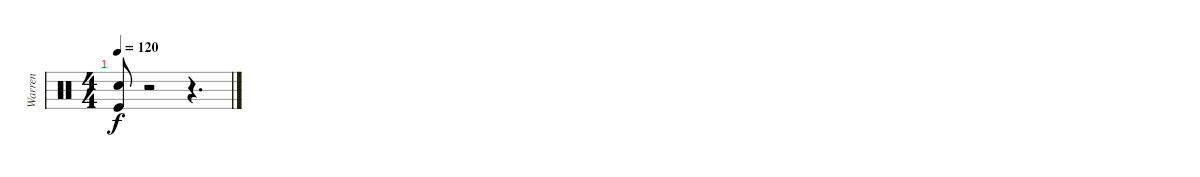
\track ("Warren" "Warren") {instrument percussion}
\staff {score}
\articulation defaults
\ts (4 4)
\tempo 120
\clef neutral
\ks c
("Electric Snare (hit)" "Kick (hit)").8{dy f} r.2 r.4{d}
